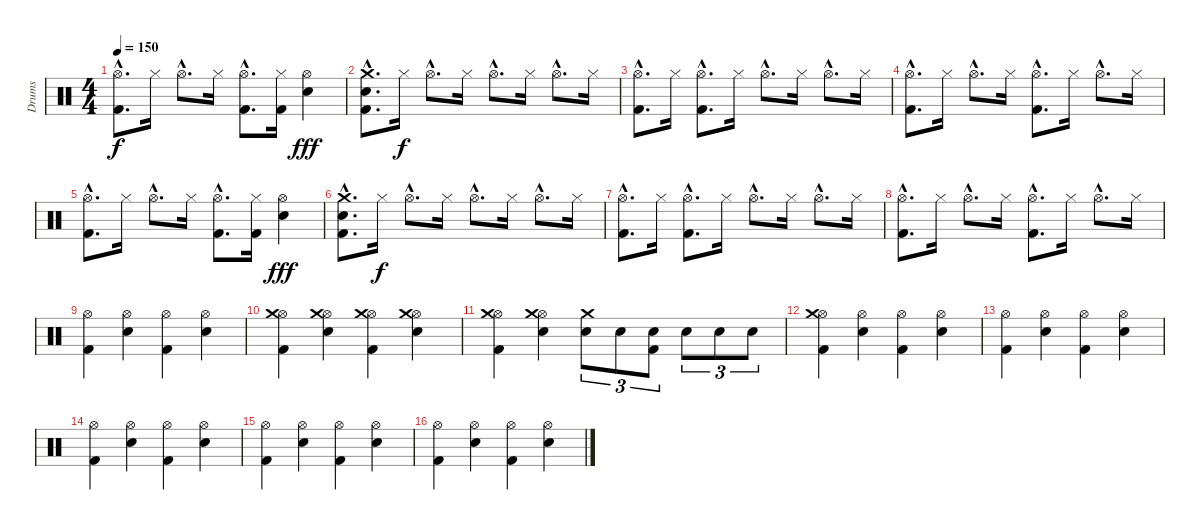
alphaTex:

\track ("Drums" "Drums") {instrument percussion}
\staff {score}
\articulation defaults
\ts (4 4)
\tempo 150
\clef neutral
\ks c
("Hi-Hat (open)"{hac} "Kick (hit) 2"{hac}).8{d dy f volume 9} "Hi-Hat (closed)".16 "Hi-Hat (open)"{hac}.8{d} "Hi-Hat (closed)".16 ("Hi-Hat (open)"{hac} "Kick (hit) 2"{hac}).8{d} ("Hi-Hat (closed)" "Kick (hit) 2").16 ("Hi-Hat (open)" "Snare (hit) 2").4{dy fff} |
("Crash medium (hit)"{hac} "Snare (hit) 2"{hac} "Kick (hit) 2"{hac}).8{d volume 9} "Hi-Hat (closed)".16{dy f} "Hi-Hat (open)"{hac}.8{d} "Hi-Hat (closed)".16 "Hi-Hat (open)"{hac}.8{d} "Hi-Hat (closed)".16 "Hi-Hat (open)"{hac}.8{d} "Hi-Hat (closed)".16 |
("Hi-Hat (open)"{hac} "Kick (hit) 2"{hac}).8{d volume 9} "Hi-Hat (closed)".16 ("Hi-Hat (open)"{hac} "Kick (hit) 2"{hac}).8{d} "Hi-Hat (closed)".16 "Hi-Hat (open)"{hac}.8{d} "Hi-Hat (closed)".16 "Hi-Hat (open)"{hac}.8{d} "Hi-Hat (closed)".16 |
("Hi-Hat (open)"{hac} "Kick (hit) 2"{hac}).8{d volume 9} "Hi-Hat (closed)".16 "Hi-Hat (open)"{hac}.8{d} "Hi-Hat (closed)".16 ("Hi-Hat (open)"{hac} "Kick (hit) 2"{hac}).8{d} "Hi-Hat (closed)".16 "Hi-Hat (open)"{hac}.8{d} "Hi-Hat (closed)".16 |
("Hi-Hat (open)"{hac} "Kick (hit) 2"{hac}).8{d volume 9} "Hi-Hat (closed)".16 "Hi-Hat (open)"{hac}.8{d} "Hi-Hat (closed)".16 ("Hi-Hat (open)"{hac} "Kick (hit) 2"{hac}).8{d} ("Hi-Hat (closed)" "Kick (hit) 2").16 ("Hi-Hat (open)" "Snare (hit) 2").4{dy fff} |
("Crash medium (hit)"{hac} "Snare (hit) 2"{hac} "Kick (hit) 2"{hac}).8{d volume 9} "Hi-Hat (closed)".16{dy f} "Hi-Hat (open)"{hac}.8{d} "Hi-Hat (closed)".16 "Hi-Hat (open)"{hac}.8{d} "Hi-Hat (closed)".16 "Hi-Hat (open)"{hac}.8{d} "Hi-Hat (closed)".16 |
("Hi-Hat (open)"{hac} "Kick (hit) 2"{hac}).8{d volume 9} "Hi-Hat (closed)".16 ("Hi-Hat (open)"{hac} "Kick (hit) 2"{hac}).8{d} "Hi-Hat (closed)".16 "Hi-Hat (open)"{hac}.8{d} "Hi-Hat (closed)".16 "Hi-Hat (open)"{hac}.8{d} "Hi-Hat (closed)".16 |
("Hi-Hat (open)"{hac} "Kick (hit) 2"{hac}).8{d volume 9} "Hi-Hat (closed)".16 "Hi-Hat (open)"{hac}.8{d} "Hi-Hat (closed)".16 ("Hi-Hat (open)"{hac} "Kick (hit) 2"{hac}).8{d} "Hi-Hat (closed)".16 "Hi-Hat (open)"{hac}.8{d} "Hi-Hat (closed)".16 |
("Hi-Hat (open)" "Kick (hit) 2").4{volume 13} ("Hi-Hat (open)" "Snare (hit) 2").4 ("Hi-Hat (open)" "Kick (hit) 2").4 ("Hi-Hat (open)" "Snare (hit) 2").4 |
("Hi-Hat (open)" "Crash medium (hit)" "Kick (hit) 2").4 ("Hi-Hat (open)" "Crash medium (hit)" "Snare (hit) 2").4 ("Hi-Hat (open)" "Crash medium (hit)" "Kick (hit) 2").4 ("Hi-Hat (open)" "Crash medium (hit)" "Snare (hit) 2").4 |
("Hi-Hat (open)" "Crash medium (hit)" "Kick (hit) 2").4 ("Hi-Hat (open)" "Crash medium (hit)" "Snare (hit) 2").4 ("Crash medium (hit)" "Snare (hit) 2").8{tu (3 2)} "Snare (hit) 2".8{tu (3 2)} ("Snare (hit) 2" "Kick (hit) 2").8{tu (3 2)} "Snare (hit) 2".8{tu (3 2)} "Snare (hit) 2".8{tu (3 2)} "Snare (hit) 2".8{tu (3 2)} |
("Hi-Hat (open)" "Crash medium (hit)" "Kick (hit) 2").4 ("Hi-Hat (open)" "Snare (hit) 2").4 ("Hi-Hat (open)" "Kick (hit) 2").4 ("Hi-Hat (open)" "Snare (hit) 2").4 |
("Hi-Hat (open)" "Kick (hit) 2").4 ("Hi-Hat (open)" "Snare (hit) 2").4 ("Hi-Hat (open)" "Kick (hit) 2").4 ("Hi-Hat (open)" "Snare (hit) 2").4 |
("Hi-Hat (open)" "Kick (hit) 2").4 ("Hi-Hat (open)" "Snare (hit) 2").4 ("Hi-Hat (open)" "Kick (hit) 2").4 ("Hi-Hat (open)" "Snare (hit) 2").4 |
("Hi-Hat (open)" "Kick (hit) 2").4 ("Hi-Hat (open)" "Snare (hit) 2").4 ("Hi-Hat (open)" "Kick (hit) 2").4 ("Hi-Hat (open)" "Snare (hit) 2").4 |
("Hi-Hat (open)" "Kick (hit) 2").4 ("Hi-Hat (open)" "Snare (hit) 2").4 ("Hi-Hat (open)" "Kick (hit) 2").4 ("Hi-Hat (open)" "Snare (hit) 2").4
